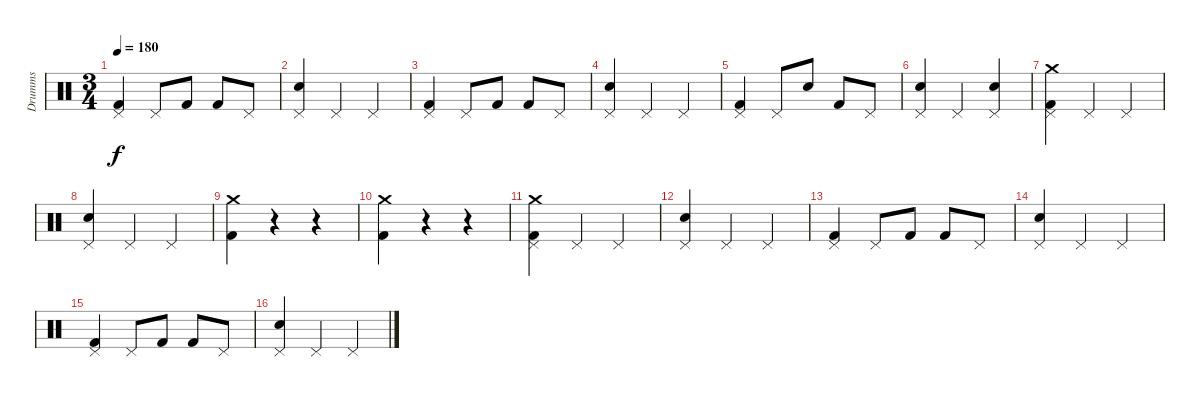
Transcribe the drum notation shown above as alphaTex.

\track ("Drumms" "Drumms") {instrument percussion}
\staff {score}
\articulation defaults
\ts (3 4)
\tempo 180
\clef neutral
\ks c
("Pedal Hi-Hat (hit)" "Kick (hit) 2").4{dy f} "Pedal Hi-Hat (hit)".8 "Kick (hit) 2".8 "Kick (hit) 2".8 "Pedal Hi-Hat (hit)".8 |
("Pedal Hi-Hat (hit)" "Snare (hit) 2").4 "Pedal Hi-Hat (hit)".4 "Pedal Hi-Hat (hit)".4 |
("Pedal Hi-Hat (hit)" "Kick (hit) 2").4 "Pedal Hi-Hat (hit)".8 "Kick (hit) 2".8 "Kick (hit) 2".8 "Pedal Hi-Hat (hit)".8 |
("Pedal Hi-Hat (hit)" "Snare (hit) 2").4 "Pedal Hi-Hat (hit)".4 "Pedal Hi-Hat (hit)".4 |
("Pedal Hi-Hat (hit)" "Kick (hit) 2").4 "Pedal Hi-Hat (hit)".8 "Snare (hit) 2".8 "Kick (hit) 2".8 "Pedal Hi-Hat (hit)".8 |
("Pedal Hi-Hat (hit)" "Snare (hit) 2").4 "Pedal Hi-Hat (hit)".4 ("Pedal Hi-Hat (hit)" "Snare (hit) 2").4 |
("Pedal Hi-Hat (hit)" "Kick (hit) 2" "Crash medium (hit)").4 "Pedal Hi-Hat (hit)".4 "Pedal Hi-Hat (hit)".4 |
("Pedal Hi-Hat (hit)" "Snare (hit) 2").4 "Pedal Hi-Hat (hit)".4 "Pedal Hi-Hat (hit)".4 |
("Kick (hit) 2" "Crash medium (hit)").4 r.4 r.4 |
("Kick (hit) 2" "Crash medium (hit)").4 r.4 r.4 |
("Pedal Hi-Hat (hit)" "Kick (hit) 2" "Crash medium (hit)").4 "Pedal Hi-Hat (hit)".4 "Pedal Hi-Hat (hit)".4 |
("Pedal Hi-Hat (hit)" "Snare (hit) 2").4 "Pedal Hi-Hat (hit)".4 "Pedal Hi-Hat (hit)".4 |
("Pedal Hi-Hat (hit)" "Kick (hit) 2").4 "Pedal Hi-Hat (hit)".8 "Kick (hit) 2".8 "Kick (hit) 2".8 "Pedal Hi-Hat (hit)".8 |
("Pedal Hi-Hat (hit)" "Snare (hit) 2").4 "Pedal Hi-Hat (hit)".4 "Pedal Hi-Hat (hit)".4 |
("Pedal Hi-Hat (hit)" "Kick (hit) 2").4 "Pedal Hi-Hat (hit)".8 "Kick (hit) 2".8 "Kick (hit) 2".8 "Pedal Hi-Hat (hit)".8 |
("Pedal Hi-Hat (hit)" "Snare (hit) 2").4 "Pedal Hi-Hat (hit)".4 "Pedal Hi-Hat (hit)".4
